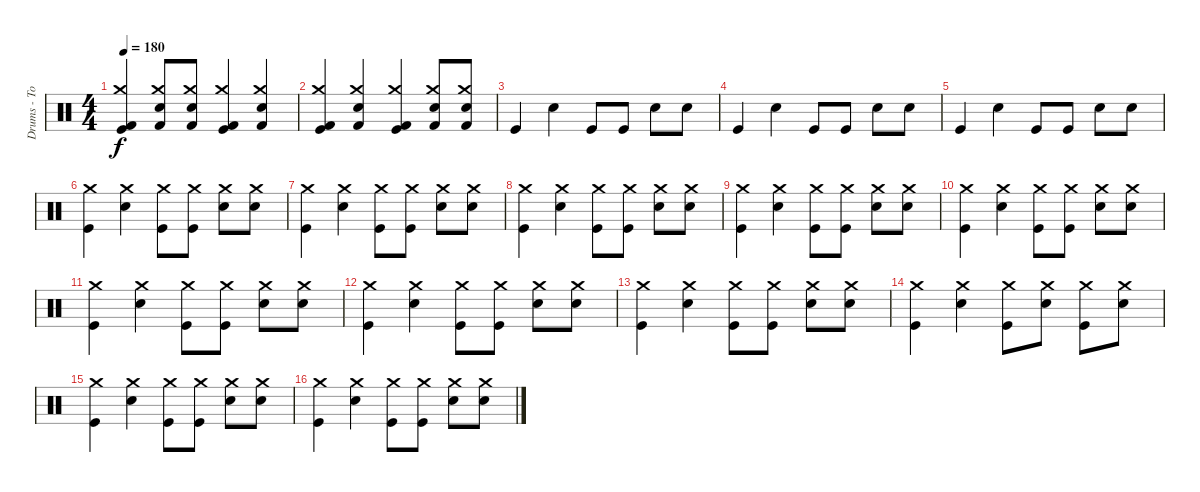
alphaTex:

\track ("Drums - Tom" "Drums - To") {instrument percussion}
\staff {score}
\articulation defaults
\ts (4 4)
\tempo 180
\clef neutral
\ks c
("Kick (hit) 2" "Crash medium (hit)" "Kick (hit)").4{dy f} ("Kick (hit) 2" "Crash medium (hit)" "Snare (hit) 2").8 ("Kick (hit) 2" "Crash medium (hit)" "Snare (hit) 2").8 ("Kick (hit) 2" "Crash medium (hit)" "Kick (hit)").4 ("Kick (hit) 2" "Crash medium (hit)" "Snare (hit) 2").4 |
("Kick (hit) 2" "Crash medium (hit)" "Kick (hit)").4 ("Kick (hit) 2" "Crash medium (hit)" "Snare (hit) 2").4 ("Kick (hit) 2" "Crash medium (hit)" "Kick (hit)").4 ("Kick (hit) 2" "Crash medium (hit)" "Snare (hit) 2").8 ("Kick (hit) 2" "Crash medium (hit)" "Snare (hit) 2").8 |
"Kick (hit)".4 "Snare (hit) 2".4 "Kick (hit)".8 "Kick (hit)".8 "Snare (hit) 2".8 "Snare (hit) 2".8 |
"Kick (hit)".4 "Snare (hit) 2".4 "Kick (hit)".8 "Kick (hit)".8 "Snare (hit) 2".8 "Snare (hit) 2".8 |
"Kick (hit)".4 "Snare (hit) 2".4 "Kick (hit)".8 "Kick (hit)".8 "Snare (hit) 2".8 "Snare (hit) 2".8 |
("Crash medium (hit)" "Kick (hit)").4 ("Crash medium (hit)" "Snare (hit) 2").4 ("Crash medium (hit)" "Kick (hit)").8 ("Crash medium (hit)" "Kick (hit)").8 ("Crash medium (hit)" "Snare (hit) 2").8 ("Crash medium (hit)" "Snare (hit) 2").8 |
("Crash medium (hit)" "Kick (hit)").4 ("Crash medium (hit)" "Snare (hit) 2").4 ("Crash medium (hit)" "Kick (hit)").8 ("Crash medium (hit)" "Kick (hit)").8 ("Crash medium (hit)" "Snare (hit) 2").8 ("Crash medium (hit)" "Snare (hit) 2").8 |
("Crash medium (hit)" "Kick (hit)").4 ("Crash medium (hit)" "Snare (hit) 2").4 ("Crash medium (hit)" "Kick (hit)").8 ("Crash medium (hit)" "Kick (hit)").8 ("Crash medium (hit)" "Snare (hit) 2").8 ("Crash medium (hit)" "Snare (hit) 2").8 |
("Crash medium (hit)" "Kick (hit)").4 ("Crash medium (hit)" "Snare (hit) 2").4 ("Crash medium (hit)" "Kick (hit)").8 ("Crash medium (hit)" "Kick (hit)").8 ("Crash medium (hit)" "Snare (hit) 2").8 ("Crash medium (hit)" "Snare (hit) 2").8 |
("Crash medium (hit)" "Kick (hit)").4 ("Crash medium (hit)" "Snare (hit) 2").4 ("Crash medium (hit)" "Kick (hit)").8 ("Crash medium (hit)" "Kick (hit)").8 ("Crash medium (hit)" "Snare (hit) 2").8 ("Crash medium (hit)" "Snare (hit) 2").8 |
("Crash medium (hit)" "Kick (hit)").4 ("Crash medium (hit)" "Snare (hit) 2").4 ("Crash medium (hit)" "Kick (hit)").8 ("Crash medium (hit)" "Kick (hit)").8 ("Crash medium (hit)" "Snare (hit) 2").8 ("Crash medium (hit)" "Snare (hit) 2").8 |
("Crash medium (hit)" "Kick (hit)").4 ("Crash medium (hit)" "Snare (hit) 2").4 ("Crash medium (hit)" "Kick (hit)").8 ("Crash medium (hit)" "Kick (hit)").8 ("Crash medium (hit)" "Snare (hit) 2").8 ("Crash medium (hit)" "Snare (hit) 2").8 |
("Crash medium (hit)" "Kick (hit)").4 ("Crash medium (hit)" "Snare (hit) 2").4 ("Crash medium (hit)" "Kick (hit)").8 ("Crash medium (hit)" "Kick (hit)").8 ("Crash medium (hit)" "Snare (hit) 2").8 ("Crash medium (hit)" "Snare (hit) 2").8 |
("Crash medium (hit)" "Kick (hit)").4 ("Crash medium (hit)" "Snare (hit) 2").4 ("Crash medium (hit)" "Kick (hit)").8 ("Crash medium (hit)" "Snare (hit) 2").8 ("Crash medium (hit)" "Kick (hit)").8 ("Crash medium (hit)" "Snare (hit) 2").8 |
("Crash medium (hit)" "Kick (hit)").4 ("Crash medium (hit)" "Snare (hit) 2").4 ("Crash medium (hit)" "Kick (hit)").8 ("Crash medium (hit)" "Kick (hit)").8 ("Crash medium (hit)" "Snare (hit) 2").8 ("Crash medium (hit)" "Snare (hit) 2").8 |
("Crash medium (hit)" "Kick (hit)").4 ("Crash medium (hit)" "Snare (hit) 2").4 ("Crash medium (hit)" "Kick (hit)").8 ("Crash medium (hit)" "Kick (hit)").8 ("Crash medium (hit)" "Snare (hit) 2").8 ("Crash medium (hit)" "Snare (hit) 2").8
